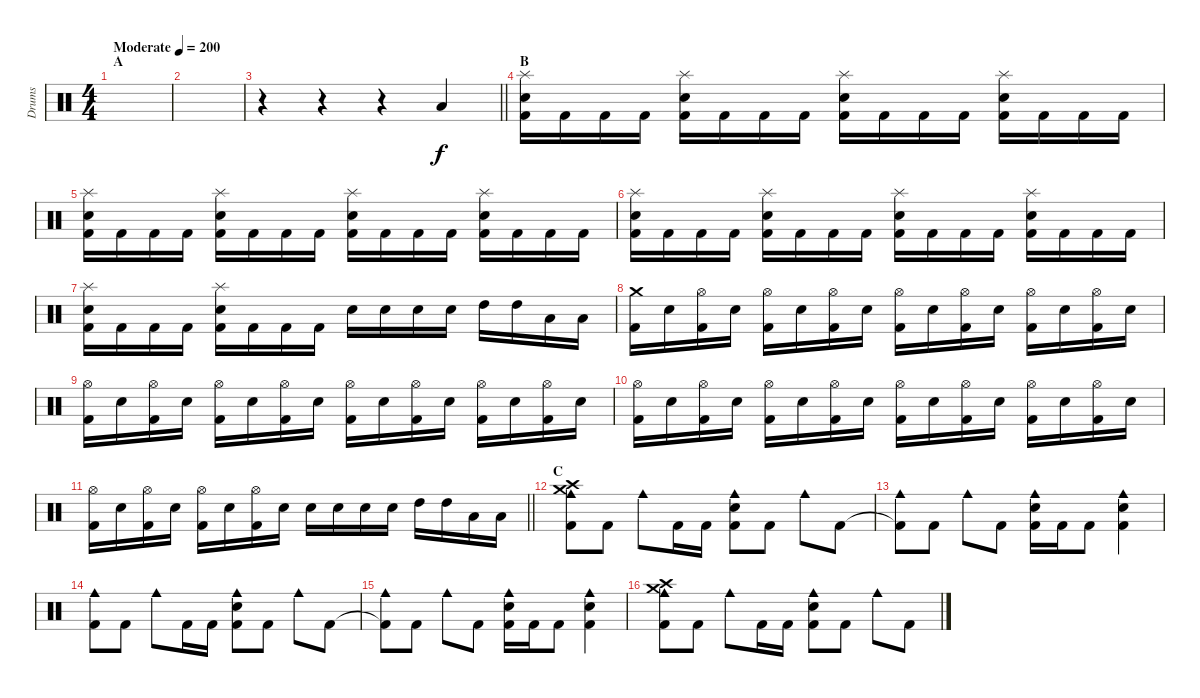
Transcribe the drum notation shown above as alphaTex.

\track ("Drums" "Drums") {instrument percussion}
\staff {score}
\articulation defaults
\ts (4 4)
\section ("" "A")
\tempo (200 "Moderate")
\clef neutral
\ks c
|
|
\barLineRight lightlight
r.4 r.4 r.4 "Low Tom (hit)".4 |
\section ("" "B")
("Splash (hit)" "Electric Snare (hit)" "Kick (hit) 2").16 "Kick (hit) 2".16 "Kick (hit) 2".16 "Kick (hit) 2".16 ("Splash (hit)" "Electric Snare (hit)" "Kick (hit) 2").16 "Kick (hit) 2".16 "Kick (hit) 2".16 "Kick (hit) 2".16 ("Splash (hit)" "Electric Snare (hit)" "Kick (hit) 2").16 "Kick (hit) 2".16 "Kick (hit) 2".16 "Kick (hit) 2".16 ("Splash (hit)" "Electric Snare (hit)" "Kick (hit) 2").16 "Kick (hit) 2".16 "Kick (hit) 2".16 "Kick (hit) 2".16 |
("Splash (hit)" "Electric Snare (hit)" "Kick (hit) 2").16 "Kick (hit) 2".16 "Kick (hit) 2".16 "Kick (hit) 2".16 ("Splash (hit)" "Electric Snare (hit)" "Kick (hit) 2").16 "Kick (hit) 2".16 "Kick (hit) 2".16 "Kick (hit) 2".16 ("Splash (hit)" "Electric Snare (hit)" "Kick (hit) 2").16 "Kick (hit) 2".16 "Kick (hit) 2".16 "Kick (hit) 2".16 ("Splash (hit)" "Electric Snare (hit)" "Kick (hit) 2").16 "Kick (hit) 2".16 "Kick (hit) 2".16 "Kick (hit) 2".16 |
("Splash (hit)" "Electric Snare (hit)" "Kick (hit) 2").16 "Kick (hit) 2".16 "Kick (hit) 2".16 "Kick (hit) 2".16 ("Splash (hit)" "Electric Snare (hit)" "Kick (hit) 2").16 "Kick (hit) 2".16 "Kick (hit) 2".16 "Kick (hit) 2".16 ("Splash (hit)" "Electric Snare (hit)" "Kick (hit) 2").16 "Kick (hit) 2".16 "Kick (hit) 2".16 "Kick (hit) 2".16 ("Splash (hit)" "Electric Snare (hit)" "Kick (hit) 2").16 "Kick (hit) 2".16 "Kick (hit) 2".16 "Kick (hit) 2".16 |
("Splash (hit)" "Electric Snare (hit)" "Kick (hit) 2").16 "Kick (hit) 2".16 "Kick (hit) 2".16 "Kick (hit) 2".16 ("Splash (hit)" "Electric Snare (hit)" "Kick (hit) 2").16 "Kick (hit) 2".16 "Kick (hit) 2".16 "Kick (hit) 2".16 "Electric Snare (hit)".16 "Electric Snare (hit)".16 "Electric Snare (hit)".16 "Electric Snare (hit)".16 "High Tom (hit)".16 "High Tom (hit)".16 "Low Tom (hit)".16 "Low Tom (hit)".16 |
("Crash medium (hit)" "Kick (hit) 2").16 "Electric Snare (hit)".16 ("Hi-Hat (open)" "Kick (hit) 2").16 "Electric Snare (hit)".16 ("Hi-Hat (open)" "Kick (hit) 2").16 "Electric Snare (hit)".16 ("Hi-Hat (open)" "Kick (hit) 2").16 "Electric Snare (hit)".16 ("Hi-Hat (open)" "Kick (hit) 2").16 "Electric Snare (hit)".16 ("Hi-Hat (open)" "Kick (hit) 2").16 "Electric Snare (hit)".16 ("Hi-Hat (open)" "Kick (hit) 2").16 "Electric Snare (hit)".16 ("Hi-Hat (open)" "Kick (hit) 2").16 "Electric Snare (hit)".16 |
("Hi-Hat (open)" "Kick (hit) 2").16 "Electric Snare (hit)".16 ("Hi-Hat (open)" "Kick (hit) 2").16 "Electric Snare (hit)".16 ("Hi-Hat (open)" "Kick (hit) 2").16 "Electric Snare (hit)".16 ("Hi-Hat (open)" "Kick (hit) 2").16 "Electric Snare (hit)".16 ("Hi-Hat (open)" "Kick (hit) 2").16 "Electric Snare (hit)".16 ("Hi-Hat (open)" "Kick (hit) 2").16 "Electric Snare (hit)".16 ("Hi-Hat (open)" "Kick (hit) 2").16 "Electric Snare (hit)".16 ("Hi-Hat (open)" "Kick (hit) 2").16 "Electric Snare (hit)".16 |
("Hi-Hat (open)" "Kick (hit) 2").16 "Electric Snare (hit)".16 ("Hi-Hat (open)" "Kick (hit) 2").16 "Electric Snare (hit)".16 ("Hi-Hat (open)" "Kick (hit) 2").16 "Electric Snare (hit)".16 ("Hi-Hat (open)" "Kick (hit) 2").16 "Electric Snare (hit)".16 ("Hi-Hat (open)" "Kick (hit) 2").16 "Electric Snare (hit)".16 ("Hi-Hat (open)" "Kick (hit) 2").16 "Electric Snare (hit)".16 ("Hi-Hat (open)" "Kick (hit) 2").16 "Electric Snare (hit)".16 ("Hi-Hat (open)" "Kick (hit) 2").16 "Electric Snare (hit)".16 |
\barLineRight lightlight
("Hi-Hat (open)" "Kick (hit) 2").16 "Electric Snare (hit)".16 ("Hi-Hat (open)" "Kick (hit) 2").16 "Electric Snare (hit)".16 ("Hi-Hat (open)" "Kick (hit) 2").16 "Electric Snare (hit)".16 ("Hi-Hat (open)" "Kick (hit) 2").16 "Electric Snare (hit)".16 "Electric Snare (hit)".16 "Electric Snare (hit)".16 "Electric Snare (hit)".16 "Electric Snare (hit)".16 "High Tom (hit)".16 "High Tom (hit)".16 "Low Tom (hit)".16 "Low Tom (hit)".16 |
\section ("" "C")
("Crash medium (hit)" "Crash high (hit)" "Kick (hit) 2" "Cowbell medium (hit)").8 "Kick (hit) 2".8 "Cowbell medium (hit)".8 "Kick (hit) 2".16 "Kick (hit) 2".16 ("Electric Snare (hit)" "Kick (hit) 2" "Cowbell medium (hit)").8 "Kick (hit) 2".8 "Cowbell medium (hit)".8 "Kick (hit) 2".8 |
("Kick (hit) 2"{t} "Cowbell medium (hit)").8 "Kick (hit) 2".8 "Cowbell medium (hit)".8 "Kick (hit) 2".8 ("Electric Snare (hit)" "Kick (hit) 2" "Cowbell medium (hit)").16 "Kick (hit) 2".16 "Kick (hit) 2".8 ("Electric Snare (hit)" "Kick (hit) 2" "Cowbell medium (hit)").4 |
("Cowbell medium (hit)" "Kick (hit) 2").8 "Kick (hit) 2".8 "Cowbell medium (hit)".8 "Kick (hit) 2".16 "Kick (hit) 2".16 ("Electric Snare (hit)" "Kick (hit) 2" "Cowbell medium (hit)").8 "Kick (hit) 2".8 "Cowbell medium (hit)".8 "Kick (hit) 2".8 |
("Kick (hit) 2"{t} "Cowbell medium (hit)").8 "Kick (hit) 2".8 "Cowbell medium (hit)".8 "Kick (hit) 2".8 ("Electric Snare (hit)" "Kick (hit) 2" "Cowbell medium (hit)").16 "Kick (hit) 2".16 "Kick (hit) 2".8 ("Electric Snare (hit)" "Kick (hit) 2" "Cowbell medium (hit)").4 |
("Crash medium (hit)" "Crash high (hit)" "Kick (hit) 2" "Cowbell medium (hit)").8 "Kick (hit) 2".8 "Cowbell medium (hit)".8 "Kick (hit) 2".16 "Kick (hit) 2".16 ("Electric Snare (hit)" "Kick (hit) 2" "Cowbell medium (hit)").8 "Kick (hit) 2".8 "Cowbell medium (hit)".8 "Kick (hit) 2".8
